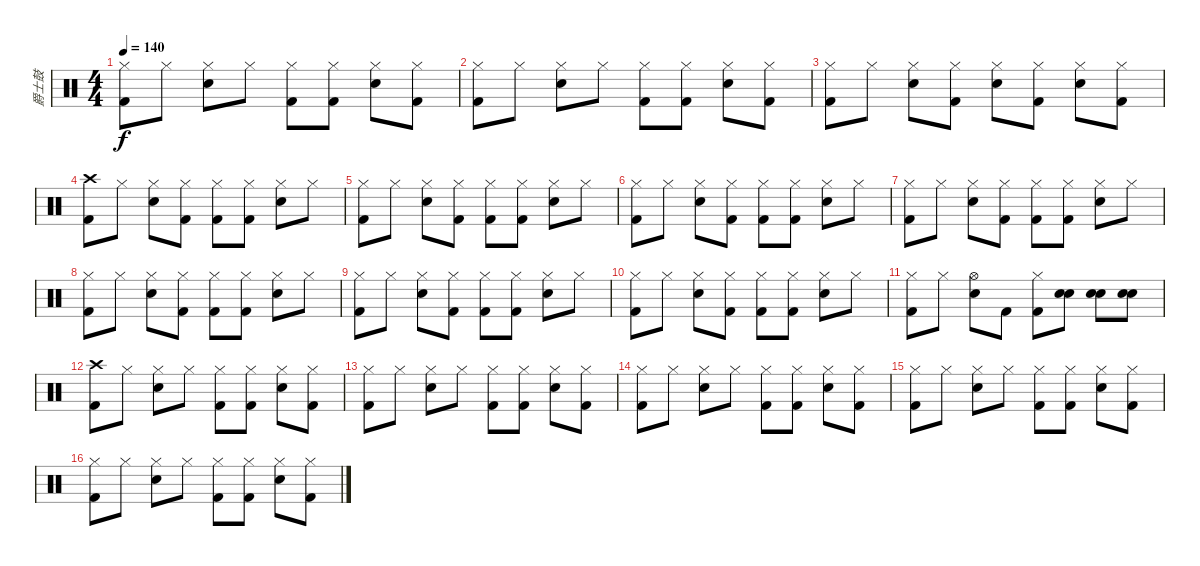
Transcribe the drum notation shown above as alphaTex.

\track ("爵士鼓" "爵士鼓") {instrument percussion}
\staff {score}
\articulation defaults
\ts (4 4)
\tempo 140
\clef neutral
\ks c
("Hi-Hat (closed)" "Kick (hit) 2").8{dy f} "Hi-Hat (closed)".8 ("Hi-Hat (closed)" "Electric Snare (hit)").8 "Hi-Hat (closed)".8 ("Hi-Hat (closed)" "Kick (hit) 2").8 ("Hi-Hat (closed)" "Kick (hit) 2").8 ("Hi-Hat (closed)" "Electric Snare (hit)").8 ("Hi-Hat (closed)" "Kick (hit) 2").8 |
("Hi-Hat (closed)" "Kick (hit) 2").8 "Hi-Hat (closed)".8 ("Hi-Hat (closed)" "Electric Snare (hit)").8 "Hi-Hat (closed)".8 ("Hi-Hat (closed)" "Kick (hit) 2").8 ("Hi-Hat (closed)" "Kick (hit) 2").8 ("Hi-Hat (closed)" "Electric Snare (hit)").8 ("Hi-Hat (closed)" "Kick (hit) 2").8 |
("Hi-Hat (closed)" "Kick (hit) 2").8 "Hi-Hat (closed)".8 ("Hi-Hat (closed)" "Electric Snare (hit)").8 ("Hi-Hat (closed)" "Kick (hit) 2").8 ("Hi-Hat (closed)" "Electric Snare (hit)").8 ("Hi-Hat (closed)" "Kick (hit) 2").8 ("Hi-Hat (closed)" "Electric Snare (hit)").8 ("Hi-Hat (closed)" "Kick (hit) 2").8 |
("Crash high (hit)" "Kick (hit) 2").8 "Hi-Hat (closed)".8 ("Hi-Hat (closed)" "Electric Snare (hit)").8 ("Hi-Hat (closed)" "Kick (hit) 2").8 ("Hi-Hat (closed)" "Kick (hit) 2").8 ("Hi-Hat (closed)" "Kick (hit) 2").8 ("Hi-Hat (closed)" "Electric Snare (hit)").8 "Hi-Hat (closed)".8 |
("Hi-Hat (closed)" "Kick (hit) 2").8 "Hi-Hat (closed)".8 ("Hi-Hat (closed)" "Electric Snare (hit)").8 ("Hi-Hat (closed)" "Kick (hit) 2").8 ("Hi-Hat (closed)" "Kick (hit) 2").8 ("Hi-Hat (closed)" "Kick (hit) 2").8 ("Hi-Hat (closed)" "Electric Snare (hit)").8 "Hi-Hat (closed)".8 |
("Hi-Hat (closed)" "Kick (hit) 2").8 "Hi-Hat (closed)".8 ("Hi-Hat (closed)" "Electric Snare (hit)").8 ("Hi-Hat (closed)" "Kick (hit) 2").8 ("Hi-Hat (closed)" "Kick (hit) 2").8 ("Hi-Hat (closed)" "Kick (hit) 2").8 ("Hi-Hat (closed)" "Electric Snare (hit)").8 "Hi-Hat (closed)".8 |
("Hi-Hat (closed)" "Kick (hit) 2").8 "Hi-Hat (closed)".8 ("Hi-Hat (closed)" "Electric Snare (hit)").8 ("Hi-Hat (closed)" "Kick (hit) 2").8 ("Hi-Hat (closed)" "Kick (hit) 2").8 ("Hi-Hat (closed)" "Kick (hit) 2").8 ("Hi-Hat (closed)" "Electric Snare (hit)").8 "Hi-Hat (closed)".8 |
("Hi-Hat (closed)" "Kick (hit) 2").8 "Hi-Hat (closed)".8 ("Hi-Hat (closed)" "Electric Snare (hit)").8 ("Hi-Hat (closed)" "Kick (hit) 2").8 ("Hi-Hat (closed)" "Kick (hit) 2").8 ("Hi-Hat (closed)" "Kick (hit) 2").8 ("Hi-Hat (closed)" "Electric Snare (hit)").8 "Hi-Hat (closed)".8 |
("Hi-Hat (closed)" "Kick (hit) 2").8 "Hi-Hat (closed)".8 ("Hi-Hat (closed)" "Electric Snare (hit)").8 ("Hi-Hat (closed)" "Kick (hit) 2").8 ("Hi-Hat (closed)" "Kick (hit) 2").8 ("Hi-Hat (closed)" "Kick (hit) 2").8 ("Hi-Hat (closed)" "Electric Snare (hit)").8 "Hi-Hat (closed)".8 |
("Hi-Hat (closed)" "Kick (hit) 2").8 "Hi-Hat (closed)".8 ("Hi-Hat (closed)" "Electric Snare (hit)").8 ("Hi-Hat (closed)" "Kick (hit) 2").8 ("Hi-Hat (closed)" "Kick (hit) 2").8 ("Hi-Hat (closed)" "Kick (hit) 2").8 ("Hi-Hat (closed)" "Electric Snare (hit)").8 "Hi-Hat (closed)".8 |
("Hi-Hat (closed)" "Kick (hit) 2").8 "Hi-Hat (closed)".8 ("Hi-Hat (open)" "Electric Snare (hit)").8 "Kick (hit) 2".8 ("Hi-Hat (closed)" "Kick (hit) 2").8 ("Electric Snare (hit)" "Electric Snare (hit)").8 ("Electric Snare (hit)" "Electric Snare (hit)").8 ("Electric Snare (hit)" "Electric Snare (hit)").8 |
("Crash high (hit)" "Kick (hit) 2").8 "Hi-Hat (closed)".8 ("Hi-Hat (closed)" "Electric Snare (hit)").8 "Hi-Hat (closed)".8 ("Hi-Hat (closed)" "Kick (hit) 2").8 ("Hi-Hat (closed)" "Kick (hit) 2").8 ("Hi-Hat (closed)" "Electric Snare (hit)").8 ("Hi-Hat (closed)" "Kick (hit) 2").8 |
("Hi-Hat (closed)" "Kick (hit) 2").8 "Hi-Hat (closed)".8 ("Hi-Hat (closed)" "Electric Snare (hit)").8 "Hi-Hat (closed)".8 ("Hi-Hat (closed)" "Kick (hit) 2").8 ("Hi-Hat (closed)" "Kick (hit) 2").8 ("Hi-Hat (closed)" "Electric Snare (hit)").8 ("Hi-Hat (closed)" "Kick (hit) 2").8 |
("Hi-Hat (closed)" "Kick (hit) 2").8 "Hi-Hat (closed)".8 ("Hi-Hat (closed)" "Electric Snare (hit)").8 "Hi-Hat (closed)".8 ("Hi-Hat (closed)" "Kick (hit) 2").8 ("Hi-Hat (closed)" "Kick (hit) 2").8 ("Hi-Hat (closed)" "Electric Snare (hit)").8 ("Hi-Hat (closed)" "Kick (hit) 2").8 |
("Hi-Hat (closed)" "Kick (hit) 2").8 "Hi-Hat (closed)".8 ("Hi-Hat (closed)" "Electric Snare (hit)").8 "Hi-Hat (closed)".8 ("Hi-Hat (closed)" "Kick (hit) 2").8 ("Hi-Hat (closed)" "Kick (hit) 2").8 ("Hi-Hat (closed)" "Electric Snare (hit)").8 ("Hi-Hat (closed)" "Kick (hit) 2").8 |
("Hi-Hat (closed)" "Kick (hit) 2").8 "Hi-Hat (closed)".8 ("Hi-Hat (closed)" "Electric Snare (hit)").8 "Hi-Hat (closed)".8 ("Hi-Hat (closed)" "Kick (hit) 2").8 ("Hi-Hat (closed)" "Kick (hit) 2").8 ("Hi-Hat (closed)" "Electric Snare (hit)").8 ("Hi-Hat (closed)" "Kick (hit) 2").8
